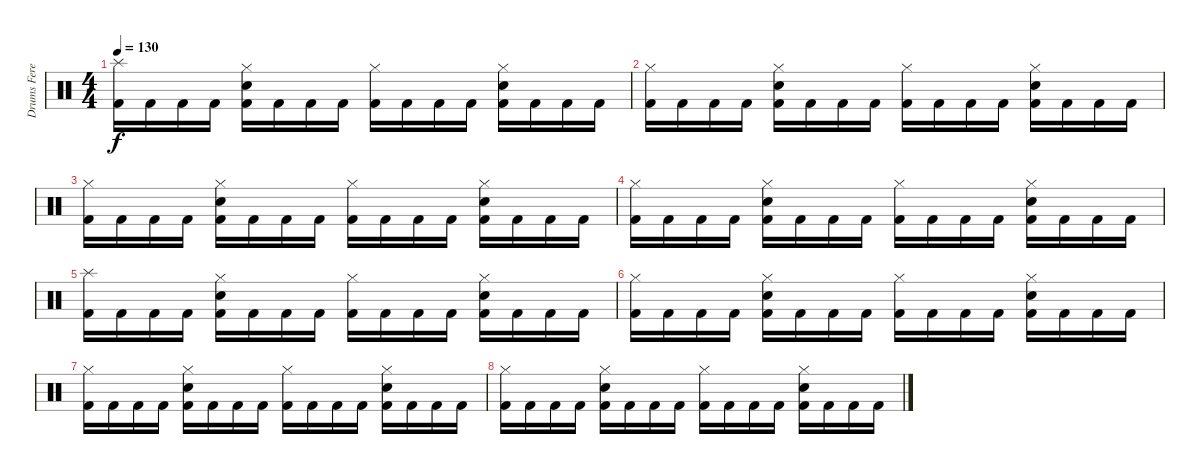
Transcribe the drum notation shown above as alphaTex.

\track ("Drums Feret" "Drums Fere") {instrument percussion}
\staff {score}
\articulation defaults
\ts (4 4)
\tempo 130
\clef neutral
\ks c
("Kick (hit) 2" "Splash (hit)").16{dy f} "Kick (hit) 2".16 "Kick (hit) 2".16 "Kick (hit) 2".16 ("Kick (hit) 2" "Electric Snare (hit)" "Hi-Hat (closed)").16 "Kick (hit) 2".16 "Kick (hit) 2".16 "Kick (hit) 2".16 ("Kick (hit) 2" "Hi-Hat (closed)").16 "Kick (hit) 2".16 "Kick (hit) 2".16 "Kick (hit) 2".16 ("Kick (hit) 2" "Electric Snare (hit)" "Hi-Hat (closed)").16 "Kick (hit) 2".16 "Kick (hit) 2".16 "Kick (hit) 2".16 |
("Kick (hit) 2" "Hi-Hat (closed)").16 "Kick (hit) 2".16 "Kick (hit) 2".16 "Kick (hit) 2".16 ("Kick (hit) 2" "Electric Snare (hit)" "Hi-Hat (closed)").16 "Kick (hit) 2".16 "Kick (hit) 2".16 "Kick (hit) 2".16 ("Kick (hit) 2" "Hi-Hat (closed)").16 "Kick (hit) 2".16 "Kick (hit) 2".16 "Kick (hit) 2".16 ("Kick (hit) 2" "Electric Snare (hit)" "Hi-Hat (closed)").16 "Kick (hit) 2".16 "Kick (hit) 2".16 "Kick (hit) 2".16 |
("Kick (hit) 2" "Hi-Hat (closed)").16 "Kick (hit) 2".16 "Kick (hit) 2".16 "Kick (hit) 2".16 ("Kick (hit) 2" "Electric Snare (hit)" "Hi-Hat (closed)").16 "Kick (hit) 2".16 "Kick (hit) 2".16 "Kick (hit) 2".16 ("Kick (hit) 2" "Hi-Hat (closed)").16 "Kick (hit) 2".16 "Kick (hit) 2".16 "Kick (hit) 2".16 ("Kick (hit) 2" "Electric Snare (hit)" "Hi-Hat (closed)").16 "Kick (hit) 2".16 "Kick (hit) 2".16 "Kick (hit) 2".16 |
("Kick (hit) 2" "Hi-Hat (closed)").16 "Kick (hit) 2".16 "Kick (hit) 2".16 "Kick (hit) 2".16 ("Kick (hit) 2" "Electric Snare (hit)" "Hi-Hat (closed)").16 "Kick (hit) 2".16 "Kick (hit) 2".16 "Kick (hit) 2".16 ("Kick (hit) 2" "Hi-Hat (closed)").16 "Kick (hit) 2".16 "Kick (hit) 2".16 "Kick (hit) 2".16 ("Kick (hit) 2" "Electric Snare (hit)" "Hi-Hat (closed)").16 "Kick (hit) 2".16 "Kick (hit) 2".16 "Kick (hit) 2".16 |
("Kick (hit) 2" "Splash (hit)").16 "Kick (hit) 2".16 "Kick (hit) 2".16 "Kick (hit) 2".16 ("Kick (hit) 2" "Electric Snare (hit)" "Hi-Hat (closed)").16 "Kick (hit) 2".16 "Kick (hit) 2".16 "Kick (hit) 2".16 ("Kick (hit) 2" "Hi-Hat (closed)").16 "Kick (hit) 2".16 "Kick (hit) 2".16 "Kick (hit) 2".16 ("Kick (hit) 2" "Electric Snare (hit)" "Hi-Hat (closed)").16 "Kick (hit) 2".16 "Kick (hit) 2".16 "Kick (hit) 2".16 |
("Kick (hit) 2" "Hi-Hat (closed)").16 "Kick (hit) 2".16 "Kick (hit) 2".16 "Kick (hit) 2".16 ("Kick (hit) 2" "Electric Snare (hit)" "Hi-Hat (closed)").16 "Kick (hit) 2".16 "Kick (hit) 2".16 "Kick (hit) 2".16 ("Kick (hit) 2" "Hi-Hat (closed)").16 "Kick (hit) 2".16 "Kick (hit) 2".16 "Kick (hit) 2".16 ("Kick (hit) 2" "Electric Snare (hit)" "Hi-Hat (closed)").16 "Kick (hit) 2".16 "Kick (hit) 2".16 "Kick (hit) 2".16 |
("Kick (hit) 2" "Hi-Hat (closed)").16 "Kick (hit) 2".16 "Kick (hit) 2".16 "Kick (hit) 2".16 ("Kick (hit) 2" "Electric Snare (hit)" "Hi-Hat (closed)").16 "Kick (hit) 2".16 "Kick (hit) 2".16 "Kick (hit) 2".16 ("Kick (hit) 2" "Hi-Hat (closed)").16 "Kick (hit) 2".16 "Kick (hit) 2".16 "Kick (hit) 2".16 ("Kick (hit) 2" "Electric Snare (hit)" "Hi-Hat (closed)").16 "Kick (hit) 2".16 "Kick (hit) 2".16 "Kick (hit) 2".16 |
("Kick (hit) 2" "Hi-Hat (closed)").16 "Kick (hit) 2".16 "Kick (hit) 2".16 "Kick (hit) 2".16 ("Kick (hit) 2" "Electric Snare (hit)" "Hi-Hat (closed)").16 "Kick (hit) 2".16 "Kick (hit) 2".16 "Kick (hit) 2".16 ("Kick (hit) 2" "Hi-Hat (closed)").16 "Kick (hit) 2".16 "Kick (hit) 2".16 "Kick (hit) 2".16 ("Kick (hit) 2" "Electric Snare (hit)" "Hi-Hat (closed)").16 "Kick (hit) 2".16 "Kick (hit) 2".16 "Kick (hit) 2".16
